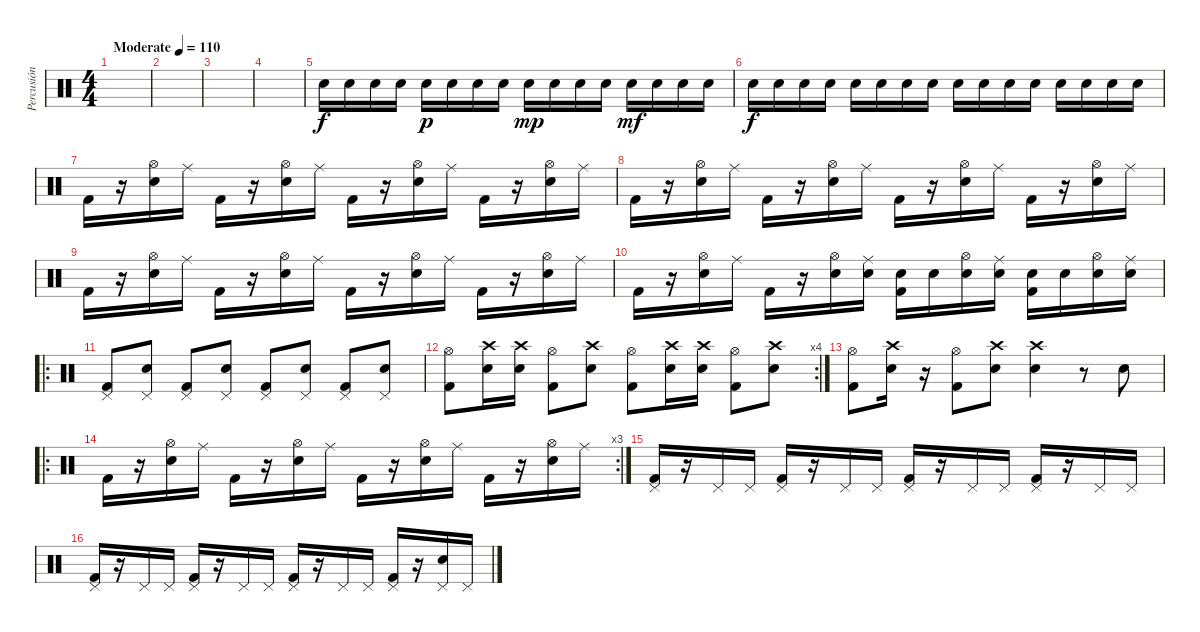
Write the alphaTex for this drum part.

\track ("Percusión" "Percusión") {instrument percussion}
\staff {score}
\articulation defaults
\ts (4 4)
\tempo (110 "Moderate")
\clef neutral
\ks c
|
|
|
|
"Electric Snare (hit)".16 "Electric Snare (hit)".16 "Electric Snare (hit)".16 "Electric Snare (hit)".16 "Electric Snare (hit)".16{dy p} "Electric Snare (hit)".16 "Electric Snare (hit)".16 "Electric Snare (hit)".16 "Electric Snare (hit)".16{dy mp} "Electric Snare (hit)".16 "Electric Snare (hit)".16 "Electric Snare (hit)".16 "Electric Snare (hit)".16{dy mf} "Electric Snare (hit)".16 "Electric Snare (hit)".16 "Electric Snare (hit)".16 |
"Electric Snare (hit)".16{dy f} "Electric Snare (hit)".16 "Electric Snare (hit)".16 "Electric Snare (hit)".16 "Electric Snare (hit)".16 "Electric Snare (hit)".16 "Electric Snare (hit)".16 "Electric Snare (hit)".16 "Electric Snare (hit)".16 "Electric Snare (hit)".16 "Electric Snare (hit)".16 "Electric Snare (hit)".16 "Electric Snare (hit)".16 "Electric Snare (hit)".16 "Electric Snare (hit)".16 "Electric Snare (hit)".16 |
"Kick (hit) 2".16 r.16 ("Hi-Hat (open)" "Electric Snare (hit)").16 "Ride (middle)".16 "Kick (hit) 2".16 r.16 ("Hi-Hat (open)" "Electric Snare (hit)").16 "Ride (middle)".16 "Kick (hit) 2".16 r.16 ("Hi-Hat (open)" "Electric Snare (hit)").16 "Ride (middle)".16 "Kick (hit) 2".16 r.16 ("Hi-Hat (open)" "Electric Snare (hit)").16 "Ride (middle)".16 |
"Kick (hit) 2".16 r.16 ("Hi-Hat (open)" "Electric Snare (hit)").16 "Ride (middle)".16 "Kick (hit) 2".16 r.16 ("Hi-Hat (open)" "Electric Snare (hit)").16 "Ride (middle)".16 "Kick (hit) 2".16 r.16 ("Hi-Hat (open)" "Electric Snare (hit)").16 "Ride (middle)".16 "Kick (hit) 2".16 r.16 ("Hi-Hat (open)" "Electric Snare (hit)").16 "Ride (middle)".16 |
"Kick (hit) 2".16 r.16 ("Hi-Hat (open)" "Electric Snare (hit)").16 "Ride (middle)".16 "Kick (hit) 2".16 r.16 ("Hi-Hat (open)" "Electric Snare (hit)").16 "Ride (middle)".16 "Kick (hit) 2".16 r.16 ("Hi-Hat (open)" "Electric Snare (hit)").16 "Ride (middle)".16 "Kick (hit) 2".16 r.16 ("Hi-Hat (open)" "Electric Snare (hit)").16 "Ride (middle)".16 |
"Kick (hit) 2".16 r.16 ("Hi-Hat (open)" "Electric Snare (hit)").16 "Ride (middle)".16 "Kick (hit) 2".16 r.16 ("Hi-Hat (open)" "Electric Snare (hit)").16 ("Ride (middle)" "Electric Snare (hit)").16 ("Electric Snare (hit)" "Kick (hit) 2").16 "Electric Snare (hit)".16 ("Hi-Hat (open)" "Electric Snare (hit)").16 ("Ride (middle)" "Electric Snare (hit)").16 ("Electric Snare (hit)" "Kick (hit) 2").16 "Electric Snare (hit)".16 ("Hi-Hat (open)" "Electric Snare (hit)").16 ("Ride (middle)" "Electric Snare (hit)").16 |
\ro
("Pedal Hi-Hat (hit)" "Kick (hit) 2").8 ("Pedal Hi-Hat (hit)" "Electric Snare (hit)").8 ("Pedal Hi-Hat (hit)" "Kick (hit) 2").8 ("Pedal Hi-Hat (hit)" "Electric Snare (hit)").8 ("Pedal Hi-Hat (hit)" "Kick (hit) 2").8 ("Pedal Hi-Hat (hit)" "Electric Snare (hit)").8 ("Pedal Hi-Hat (hit)" "Kick (hit) 2").8 ("Pedal Hi-Hat (hit)" "Electric Snare (hit)").8 |
\rc 4
("Hi-Hat (open)" "Kick (hit) 2").8 ("Crash high (hit)" "Electric Snare (hit)").16 ("Crash high (hit)" "Electric Snare (hit)").16 ("Hi-Hat (open)" "Kick (hit) 2").8 ("Crash high (hit)" "Electric Snare (hit)").8 ("Hi-Hat (open)" "Kick (hit) 2").8 ("Crash high (hit)" "Electric Snare (hit)").16 ("Crash high (hit)" "Electric Snare (hit)").16 ("Hi-Hat (open)" "Kick (hit) 2").8 ("Crash high (hit)" "Electric Snare (hit)").8 |
("Hi-Hat (open)" "Kick (hit) 2").8 ("Crash high (hit)" "Electric Snare (hit)").16 r.16 ("Hi-Hat (open)" "Kick (hit) 2").8 ("Crash high (hit)" "Electric Snare (hit)").8 ("Crash high (hit)" "Electric Snare (hit)").4 r.8 "Electric Snare (hit)".8 |
\ro
\rc 3 "Kick (hit) 2".16
r.16 ("Hi-Hat (open)" "Electric Snare (hit)").16 "Ride (middle)".16 "Kick (hit) 2".16 r.16 ("Hi-Hat (open)" "Electric Snare (hit)").16 "Ride (middle)".16 "Kick (hit) 2".16 r.16 ("Hi-Hat (open)" "Electric Snare (hit)").16 "Ride (middle)".16 "Kick (hit) 2".16 r.16 ("Hi-Hat (open)" "Electric Snare (hit)").16 "Ride (middle)".16 |
("Pedal Hi-Hat (hit)" "Kick (hit) 2").16 r.16 "Pedal Hi-Hat (hit)".16 "Pedal Hi-Hat (hit)".16 ("Pedal Hi-Hat (hit)" "Kick (hit) 2").16 r.16 "Pedal Hi-Hat (hit)".16 "Pedal Hi-Hat (hit)".16 ("Pedal Hi-Hat (hit)" "Kick (hit) 2").16 r.16 "Pedal Hi-Hat (hit)".16 "Pedal Hi-Hat (hit)".16 ("Pedal Hi-Hat (hit)" "Kick (hit) 2").16 r.16 "Pedal Hi-Hat (hit)".16 "Pedal Hi-Hat (hit)".16 |
("Pedal Hi-Hat (hit)" "Kick (hit) 2").16 r.16 "Pedal Hi-Hat (hit)".16 "Pedal Hi-Hat (hit)".16 ("Pedal Hi-Hat (hit)" "Kick (hit) 2").16 r.16 "Pedal Hi-Hat (hit)".16 "Pedal Hi-Hat (hit)".16 ("Pedal Hi-Hat (hit)" "Kick (hit) 2").16 r.16 "Pedal Hi-Hat (hit)".16 "Pedal Hi-Hat (hit)".16 ("Pedal Hi-Hat (hit)" "Kick (hit) 2").16 r.16 ("Pedal Hi-Hat (hit)" "Electric Snare (hit)").16 "Pedal Hi-Hat (hit)".16
